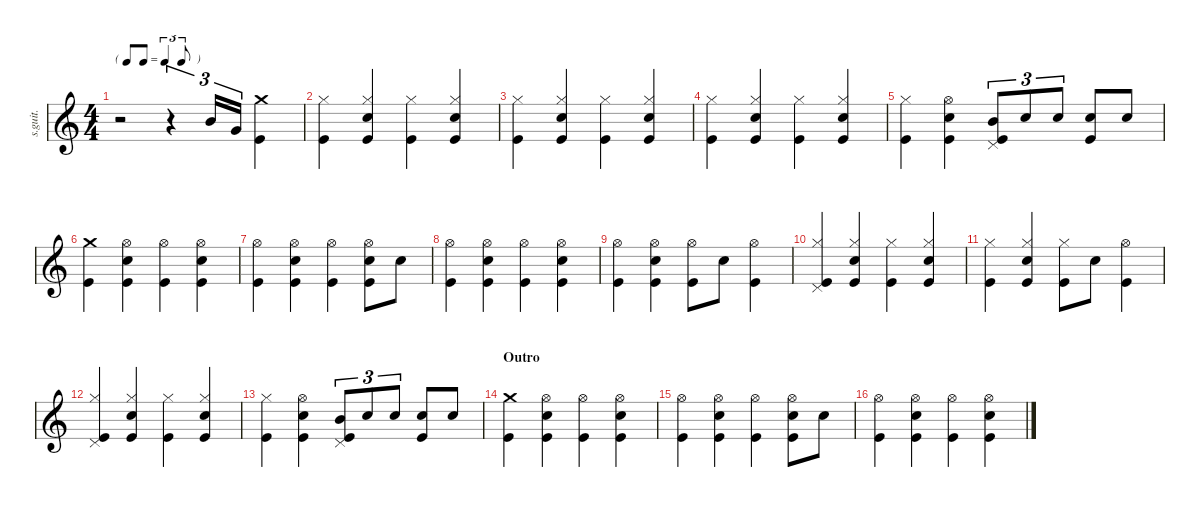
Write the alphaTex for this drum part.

\defaultSystemsLayout 4
\hideDynamics
\bracketExtendMode nobrackets
\track ("Dave Grohl" "s.guit.") {instrument percussion}
\staff {score}
\articulation defaults
\ts (4 4)
\tf triplet8th
\tempo (171 hide)
\clef g2
\ks c
r.2{dy ppp} r.4{tu (3 2)} "Mid Tom (hit)".16{tu (3 2) lyrics (0 "") lyrics (1 "") lyrics (2 "") lyrics (3 "") lyrics (4 "") dy mf} "Very Low Tom (hit)".16{tu (3 2) lyrics (0 "") lyrics (1 "") lyrics (2 "") lyrics (3 "") lyrics (4 "")} ("Crash medium (hit)" "Kick (hit)").4{lyrics (0 "") lyrics (1 "") lyrics (2 "") lyrics (3 "") lyrics (4 "")} |
("Kick (hit)" "Hi-Hat (closed)").4{lyrics (0 "") lyrics (1 "") lyrics (2 "") lyrics (3 "") lyrics (4 "")} ("Kick (hit)" "Snare (hit) 2" "Hi-Hat (closed)").4{lyrics (0 "") lyrics (1 "") lyrics (2 "") lyrics (3 "") lyrics (4 "")} ("Kick (hit)" "Hi-Hat (closed)").4{lyrics (0 "") lyrics (1 "") lyrics (2 "") lyrics (3 "") lyrics (4 "")} ("Kick (hit)" "Snare (hit) 2" "Hi-Hat (closed)").4{lyrics (0 "") lyrics (1 "") lyrics (2 "") lyrics (3 "") lyrics (4 "")} |
("Kick (hit)" "Hi-Hat (closed)").4{lyrics (0 "") lyrics (1 "") lyrics (2 "") lyrics (3 "") lyrics (4 "")} ("Kick (hit)" "Snare (hit) 2" "Hi-Hat (closed)").4{lyrics (0 "") lyrics (1 "") lyrics (2 "") lyrics (3 "") lyrics (4 "")} ("Kick (hit)" "Hi-Hat (closed)").4{lyrics (0 "") lyrics (1 "") lyrics (2 "") lyrics (3 "") lyrics (4 "")} ("Kick (hit)" "Snare (hit) 2" "Hi-Hat (closed)").4{lyrics (0 "") lyrics (1 "") lyrics (2 "") lyrics (3 "") lyrics (4 "")} |
("Kick (hit)" "Hi-Hat (closed)").4{lyrics (0 "") lyrics (1 "") lyrics (2 "") lyrics (3 "") lyrics (4 "")} ("Kick (hit)" "Snare (hit) 2" "Hi-Hat (closed)").4{lyrics (0 "") lyrics (1 "") lyrics (2 "") lyrics (3 "") lyrics (4 "")} ("Kick (hit)" "Hi-Hat (closed)").4{lyrics (0 "") lyrics (1 "") lyrics (2 "") lyrics (3 "") lyrics (4 "")} ("Kick (hit)" "Snare (hit) 2" "Hi-Hat (closed)").4{lyrics (0 "") lyrics (1 "") lyrics (2 "") lyrics (3 "") lyrics (4 "")} |
("Kick (hit)" "Hi-Hat (closed)").4{lyrics (0 "") lyrics (1 "") lyrics (2 "") lyrics (3 "") lyrics (4 "")} ("Kick (hit)" "Snare (hit) 2" "Hi-Hat (open)").4{lyrics (0 "") lyrics (1 "") lyrics (2 "") lyrics (3 "") lyrics (4 "")} ("Kick (hit)" "Pedal Hi-Hat (hit)" "Mid Tom (hit)").8{tu (3 2) lyrics (0 "") lyrics (1 "") lyrics (2 "") lyrics (3 "") lyrics (4 "")} "Snare (hit) 2".8{tu (3 2) lyrics (0 "") lyrics (1 "") lyrics (2 "") lyrics (3 "") lyrics (4 "")} "Snare (hit) 2".8{tu (3 2) lyrics (0 "") lyrics (1 "") lyrics (2 "") lyrics (3 "") lyrics (4 "")} ("Kick (hit)" "Snare (hit) 2").8{lyrics (0 "") lyrics (1 "") lyrics (2 "") lyrics (3 "") lyrics (4 "")} "Snare (hit) 2".8{lyrics (0 "") lyrics (1 "") lyrics (2 "") lyrics (3 "") lyrics (4 "")} |
("Kick (hit)" "Crash medium (hit)").4{lyrics (0 "") lyrics (1 "") lyrics (2 "") lyrics (3 "") lyrics (4 "")} ("Kick (hit)" "Snare (hit) 2" "Hi-Hat (open)").4{lyrics (0 "") lyrics (1 "") lyrics (2 "") lyrics (3 "") lyrics (4 "")} ("Kick (hit)" "Hi-Hat (open)").4{lyrics (0 "") lyrics (1 "") lyrics (2 "") lyrics (3 "") lyrics (4 "")} ("Kick (hit)" "Snare (hit) 2" "Hi-Hat (open)").4{lyrics (0 "") lyrics (1 "") lyrics (2 "") lyrics (3 "") lyrics (4 "")} |
("Kick (hit)" "Hi-Hat (open)").4{lyrics (0 "") lyrics (1 "") lyrics (2 "") lyrics (3 "") lyrics (4 "")} ("Kick (hit)" "Snare (hit) 2" "Hi-Hat (open)").4{lyrics (0 "") lyrics (1 "") lyrics (2 "") lyrics (3 "") lyrics (4 "")} ("Kick (hit)" "Hi-Hat (open)").4{lyrics (0 "") lyrics (1 "") lyrics (2 "") lyrics (3 "") lyrics (4 "")} ("Kick (hit)" "Snare (hit) 2" "Hi-Hat (open)").8{lyrics (0 "") lyrics (1 "") lyrics (2 "") lyrics (3 "") lyrics (4 "")} "Snare (hit) 2".8{lyrics (0 "") lyrics (1 "") lyrics (2 "") lyrics (3 "") lyrics (4 "")} |
("Kick (hit)" "Hi-Hat (open)").4{lyrics (0 "") lyrics (1 "") lyrics (2 "") lyrics (3 "") lyrics (4 "")} ("Kick (hit)" "Snare (hit) 2" "Hi-Hat (open)").4{lyrics (0 "") lyrics (1 "") lyrics (2 "") lyrics (3 "") lyrics (4 "")} ("Kick (hit)" "Hi-Hat (open)").4{lyrics (0 "") lyrics (1 "") lyrics (2 "") lyrics (3 "") lyrics (4 "")} ("Kick (hit)" "Snare (hit) 2" "Hi-Hat (open)").4{lyrics (0 "") lyrics (1 "") lyrics (2 "") lyrics (3 "") lyrics (4 "")} |
("Kick (hit)" "Hi-Hat (open)").4{lyrics (0 "") lyrics (1 "") lyrics (2 "") lyrics (3 "") lyrics (4 "")} ("Kick (hit)" "Snare (hit) 2" "Hi-Hat (open)").4{lyrics (0 "") lyrics (1 "") lyrics (2 "") lyrics (3 "") lyrics (4 "")} ("Kick (hit)" "Hi-Hat (open)").8{lyrics (0 "") lyrics (1 "") lyrics (2 "") lyrics (3 "") lyrics (4 "")} "Snare (hit) 2".8{lyrics (0 "") lyrics (1 "") lyrics (2 "") lyrics (3 "") lyrics (4 "")} ("Kick (hit)" "Hi-Hat (open)").4{lyrics (0 "") lyrics (1 "") lyrics (2 "") lyrics (3 "") lyrics (4 "")} |
("Kick (hit)" "Hi-Hat (closed)" "Pedal Hi-Hat (hit)").4{lyrics (0 "") lyrics (1 "") lyrics (2 "") lyrics (3 "") lyrics (4 "")} ("Kick (hit)" "Snare (hit) 2" "Hi-Hat (closed)").4{lyrics (0 "") lyrics (1 "") lyrics (2 "") lyrics (3 "") lyrics (4 "")} ("Kick (hit)" "Hi-Hat (closed)").4{lyrics (0 "") lyrics (1 "") lyrics (2 "") lyrics (3 "") lyrics (4 "")} ("Kick (hit)" "Snare (hit) 2" "Hi-Hat (closed)").4{lyrics (0 "") lyrics (1 "") lyrics (2 "") lyrics (3 "") lyrics (4 "")} |
("Kick (hit)" "Hi-Hat (closed)").4{lyrics (0 "") lyrics (1 "") lyrics (2 "") lyrics (3 "") lyrics (4 "")} ("Kick (hit)" "Snare (hit) 2" "Hi-Hat (closed)").4{lyrics (0 "") lyrics (1 "") lyrics (2 "") lyrics (3 "") lyrics (4 "")} ("Kick (hit)" "Hi-Hat (closed)").8{lyrics (0 "") lyrics (1 "") lyrics (2 "") lyrics (3 "") lyrics (4 "")} "Snare (hit) 2".8{lyrics (0 "") lyrics (1 "") lyrics (2 "") lyrics (3 "") lyrics (4 "")} ("Kick (hit)" "Hi-Hat (open)").4{lyrics (0 "") lyrics (1 "") lyrics (2 "") lyrics (3 "") lyrics (4 "")} |
("Kick (hit)" "Hi-Hat (closed)" "Pedal Hi-Hat (hit)").4{lyrics (0 "") lyrics (1 "") lyrics (2 "") lyrics (3 "") lyrics (4 "")} ("Kick (hit)" "Snare (hit) 2" "Hi-Hat (closed)").4{lyrics (0 "") lyrics (1 "") lyrics (2 "") lyrics (3 "") lyrics (4 "")} ("Kick (hit)" "Hi-Hat (closed)").4{lyrics (0 "") lyrics (1 "") lyrics (2 "") lyrics (3 "") lyrics (4 "")} ("Kick (hit)" "Snare (hit) 2" "Hi-Hat (closed)").4{lyrics (0 "") lyrics (1 "") lyrics (2 "") lyrics (3 "") lyrics (4 "")} |
("Kick (hit)" "Hi-Hat (closed)").4{lyrics (0 "") lyrics (1 "") lyrics (2 "") lyrics (3 "") lyrics (4 "")} ("Kick (hit)" "Snare (hit) 2" "Hi-Hat (open)").4{lyrics (0 "") lyrics (1 "") lyrics (2 "") lyrics (3 "") lyrics (4 "")} ("Kick (hit)" "Pedal Hi-Hat (hit)" "Mid Tom (hit)").8{tu (3 2) lyrics (0 "") lyrics (1 "") lyrics (2 "") lyrics (3 "") lyrics (4 "")} "Snare (hit) 2".8{tu (3 2) lyrics (0 "") lyrics (1 "") lyrics (2 "") lyrics (3 "") lyrics (4 "")} "Snare (hit) 2".8{tu (3 2) lyrics (0 "") lyrics (1 "") lyrics (2 "") lyrics (3 "") lyrics (4 "")} ("Kick (hit)" "Snare (hit) 2").8{lyrics (0 "") lyrics (1 "") lyrics (2 "") lyrics (3 "") lyrics (4 "")} "Snare (hit) 2".8{lyrics (0 "") lyrics (1 "") lyrics (2 "") lyrics (3 "") lyrics (4 "")} |
\section ("" "Outro")
("Kick (hit)" "Crash medium (hit)").4{lyrics (0 "") lyrics (1 "") lyrics (2 "") lyrics (3 "") lyrics (4 "")} ("Kick (hit)" "Snare (hit) 2" "Hi-Hat (open)").4{lyrics (0 "") lyrics (1 "") lyrics (2 "") lyrics (3 "") lyrics (4 "")} ("Kick (hit)" "Hi-Hat (open)").4{lyrics (0 "") lyrics (1 "") lyrics (2 "") lyrics (3 "") lyrics (4 "")} ("Kick (hit)" "Snare (hit) 2" "Hi-Hat (open)").4{lyrics (0 "") lyrics (1 "") lyrics (2 "") lyrics (3 "") lyrics (4 "")} |
("Kick (hit)" "Hi-Hat (open)").4{lyrics (0 "") lyrics (1 "") lyrics (2 "") lyrics (3 "") lyrics (4 "")} ("Kick (hit)" "Snare (hit) 2" "Hi-Hat (open)").4{lyrics (0 "") lyrics (1 "") lyrics (2 "") lyrics (3 "") lyrics (4 "")} ("Kick (hit)" "Hi-Hat (open)").4{lyrics (0 "") lyrics (1 "") lyrics (2 "") lyrics (3 "") lyrics (4 "")} ("Kick (hit)" "Snare (hit) 2" "Hi-Hat (open)").8{lyrics (0 "") lyrics (1 "") lyrics (2 "") lyrics (3 "") lyrics (4 "")} "Snare (hit) 2".8{lyrics (0 "") lyrics (1 "") lyrics (2 "") lyrics (3 "") lyrics (4 "")} |
("Kick (hit)" "Hi-Hat (open)").4{lyrics (0 "") lyrics (1 "") lyrics (2 "") lyrics (3 "") lyrics (4 "")} ("Kick (hit)" "Snare (hit) 2" "Hi-Hat (open)").4{lyrics (0 "") lyrics (1 "") lyrics (2 "") lyrics (3 "") lyrics (4 "")} ("Kick (hit)" "Hi-Hat (open)").4{lyrics (0 "") lyrics (1 "") lyrics (2 "") lyrics (3 "") lyrics (4 "")} ("Kick (hit)" "Snare (hit) 2" "Hi-Hat (open)").4{lyrics (0 "") lyrics (1 "") lyrics (2 "") lyrics (3 "") lyrics (4 "")}
